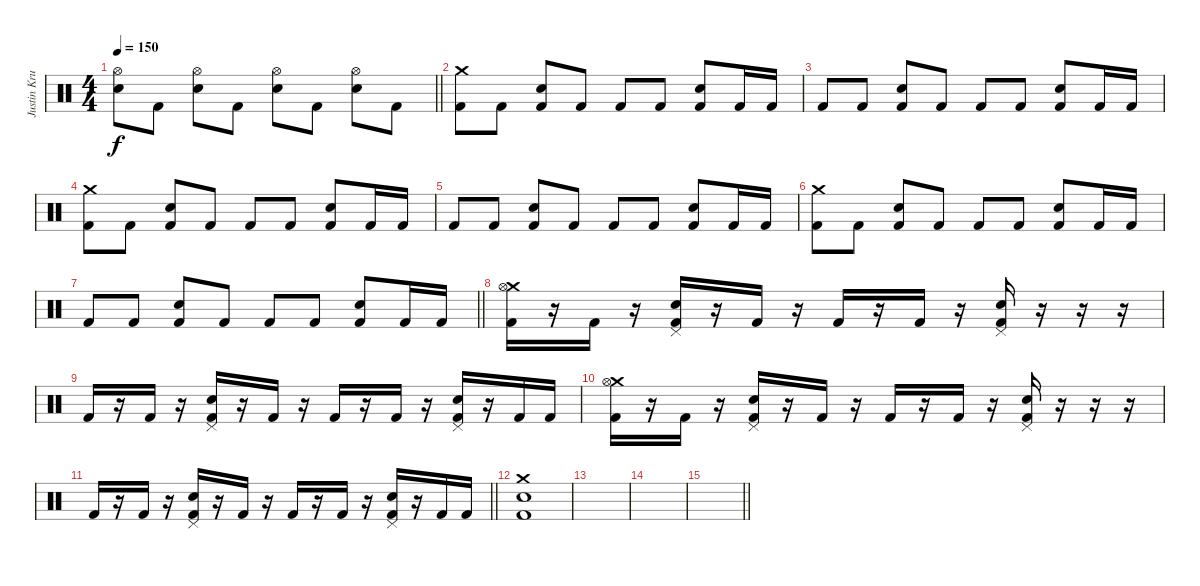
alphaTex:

\track ("Justin Kruger" "Justin Kru") {instrument percussion}
\staff {score}
\articulation defaults
\ts (4 4)
\tempo 150
\clef neutral
\barLineRight lightlight
\ks c
("Hi-Hat (open)" "Snare (hit) 2").8{dy f} "Kick (hit) 2".8 ("Hi-Hat (open)" "Snare (hit) 2").8 "Kick (hit) 2".8 ("Hi-Hat (open)" "Snare (hit) 2").8 "Kick (hit) 2".8 ("Hi-Hat (open)" "Snare (hit) 2").8 "Kick (hit) 2".8 |
\section ("" "")
("Crash medium (hit)" "Kick (hit) 2").8 "Kick (hit) 2".8 ("Electric Snare (hit)" "Kick (hit) 2").8 "Kick (hit) 2".8 "Kick (hit) 2".8 "Kick (hit) 2".8 ("Electric Snare (hit)" "Kick (hit) 2").8 "Kick (hit) 2".16 "Kick (hit) 2".16 |
"Kick (hit) 2".8 "Kick (hit) 2".8 ("Electric Snare (hit)" "Kick (hit) 2").8 "Kick (hit) 2".8 "Kick (hit) 2".8 "Kick (hit) 2".8 ("Electric Snare (hit)" "Kick (hit) 2").8 "Kick (hit) 2".16 "Kick (hit) 2".16 |
("Crash medium (hit)" "Kick (hit) 2").8 "Kick (hit) 2".8 ("Electric Snare (hit)" "Kick (hit) 2").8 "Kick (hit) 2".8 "Kick (hit) 2".8 "Kick (hit) 2".8 ("Electric Snare (hit)" "Kick (hit) 2").8 "Kick (hit) 2".16 "Kick (hit) 2".16 |
"Kick (hit) 2".8 "Kick (hit) 2".8 ("Electric Snare (hit)" "Kick (hit) 2").8 "Kick (hit) 2".8 "Kick (hit) 2".8 "Kick (hit) 2".8 ("Electric Snare (hit)" "Kick (hit) 2").8 "Kick (hit) 2".16 "Kick (hit) 2".16 |
("Crash medium (hit)" "Kick (hit) 2").8 "Kick (hit) 2".8 ("Electric Snare (hit)" "Kick (hit) 2").8 "Kick (hit) 2".8 "Kick (hit) 2".8 "Kick (hit) 2".8 ("Electric Snare (hit)" "Kick (hit) 2").8 "Kick (hit) 2".16 "Kick (hit) 2".16 |
\barLineRight lightlight "Kick (hit) 2".8 "Kick (hit) 2".8
("Electric Snare (hit)" "Kick (hit) 2").8 "Kick (hit) 2".8 "Kick (hit) 2".8 "Kick (hit) 2".8 ("Electric Snare (hit)" "Kick (hit) 2").8 "Kick (hit) 2".16 "Kick (hit) 2".16 |
\section ("" "")
("Crash medium (hit)" "Hi-Hat (open)" "Kick (hit) 2").16 r.16 "Kick (hit) 2".16 r.16 ("Pedal Hi-Hat (hit)" "Snare (hit) 2" "Kick (hit) 2").16 r.16 "Kick (hit) 2".16 r.16 "Kick (hit) 2".16 r.16 "Kick (hit) 2".16 r.16 ("Pedal Hi-Hat (hit)" "Snare (hit) 2" "Kick (hit) 2").16 r.16 r.16 r.16 |
"Kick (hit) 2".16 r.16 "Kick (hit) 2".16 r.16 ("Pedal Hi-Hat (hit)" "Snare (hit) 2" "Kick (hit) 2").16 r.16 "Kick (hit) 2".16 r.16 "Kick (hit) 2".16 r.16 "Kick (hit) 2".16 r.16 ("Pedal Hi-Hat (hit)" "Snare (hit) 2" "Kick (hit) 2").16 r.16 "Kick (hit) 2".16 "Kick (hit) 2".16 |
("Crash medium (hit)" "Hi-Hat (open)" "Kick (hit) 2").16 r.16 "Kick (hit) 2".16 r.16 ("Pedal Hi-Hat (hit)" "Snare (hit) 2" "Kick (hit) 2").16 r.16 "Kick (hit) 2".16 r.16 "Kick (hit) 2".16 r.16 "Kick (hit) 2".16 r.16 ("Pedal Hi-Hat (hit)" "Snare (hit) 2" "Kick (hit) 2").16 r.16 r.16 r.16 |
\barLineRight lightlight "Kick (hit) 2".16
r.16 "Kick (hit) 2".16 r.16 ("Pedal Hi-Hat (hit)" "Snare (hit) 2" "Kick (hit) 2").16 r.16 "Kick (hit) 2".16 r.16 "Kick (hit) 2".16 r.16 "Kick (hit) 2".16 r.16 ("Pedal Hi-Hat (hit)" "Snare (hit) 2" "Kick (hit) 2").16 r.16 "Kick (hit) 2".16 "Kick (hit) 2".16 |
\section ("" "")
("Crash medium (hit)" "Snare (hit) 2" "Kick (hit) 2").1 |
|
|
\barLineRight lightlight
